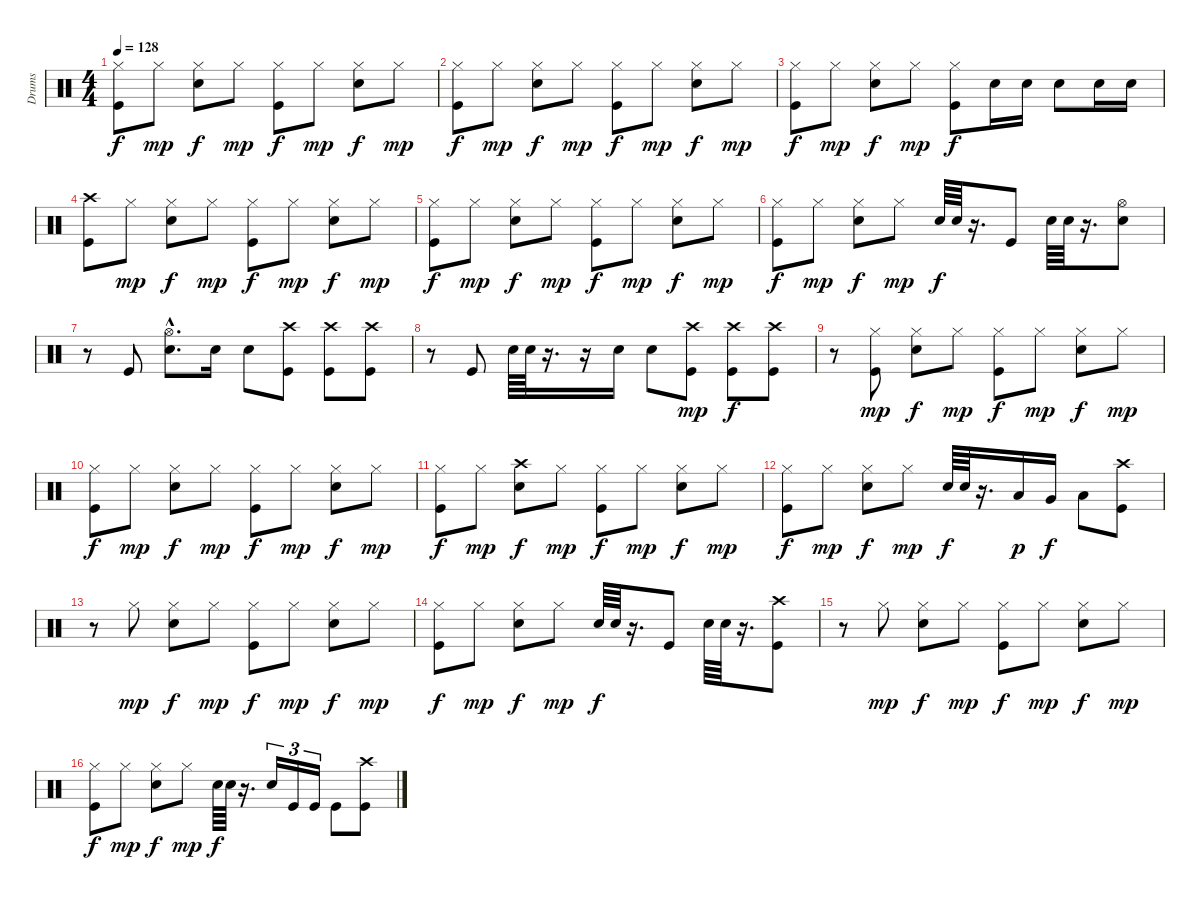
\track ("Drums" "Drums") {instrument percussion}
\staff {score}
\articulation defaults
\ts (4 4)
\tempo 128
\clef neutral
\ks c
("Hi-Hat (closed)" "Kick (hit)").8{dy f} "Hi-Hat (closed)".8{dy mp} ("Hi-Hat (closed)" "Snare (hit) 2").8{dy f} "Hi-Hat (closed)".8{dy mp} ("Hi-Hat (closed)" "Kick (hit)").8{dy f} "Hi-Hat (closed)".8{dy mp} ("Hi-Hat (closed)" "Snare (hit) 2").8{dy f} "Hi-Hat (closed)".8{dy mp} |
("Hi-Hat (closed)" "Kick (hit)").8{dy f} "Hi-Hat (closed)".8{dy mp} ("Hi-Hat (closed)" "Snare (hit) 2").8{dy f} "Hi-Hat (closed)".8{dy mp} ("Hi-Hat (closed)" "Kick (hit)").8{dy f} "Hi-Hat (closed)".8{dy mp} ("Hi-Hat (closed)" "Snare (hit) 2").8{dy f} "Hi-Hat (closed)".8{dy mp} |
("Hi-Hat (closed)" "Kick (hit)").8{dy f} "Hi-Hat (closed)".8{dy mp} ("Hi-Hat (closed)" "Snare (hit) 2").8{dy f} "Hi-Hat (closed)".8{dy mp} ("Hi-Hat (closed)" "Kick (hit)").8{dy f} "Snare (hit) 2".16 "Snare (hit) 2".16 "Snare (hit) 2".8 "Snare (hit) 2".16 "Snare (hit) 2".16 |
("Crash high (hit)" "Kick (hit)").8 "Hi-Hat (closed)".8{dy mp} ("Hi-Hat (closed)" "Snare (hit) 2").8{dy f} "Hi-Hat (closed)".8{dy mp} ("Hi-Hat (closed)" "Kick (hit)").8{dy f} "Hi-Hat (closed)".8{dy mp} ("Hi-Hat (closed)" "Snare (hit) 2").8{dy f} "Hi-Hat (closed)".8{dy mp} |
("Hi-Hat (closed)" "Kick (hit)").8{dy f} "Hi-Hat (closed)".8{dy mp} ("Hi-Hat (closed)" "Snare (hit) 2").8{dy f} "Hi-Hat (closed)".8{dy mp} ("Hi-Hat (closed)" "Kick (hit)").8{dy f} "Hi-Hat (closed)".8{dy mp} ("Hi-Hat (closed)" "Snare (hit) 2").8{dy f} "Hi-Hat (closed)".8{dy mp} |
("Hi-Hat (closed)" "Kick (hit)").8{dy f} "Hi-Hat (closed)".8{dy mp} ("Hi-Hat (closed)" "Snare (hit) 2").8{dy f} "Hi-Hat (closed)".8{dy mp} "Snare (hit) 2".64{dy f} "Snare (hit) 2".64 r.16{d} "Kick (hit)".8 "Snare (hit) 2".64 "Snare (hit) 2".64 r.16{d} ("Hi-Hat (open)" "Snare (hit) 2").8 |
r.8 "Kick (hit)".8 ("Hi-Hat (open)"{hac} "Snare (hit) 2"{hac}).8{d} "Snare (hit) 2".16 "Snare (hit) 2".8 ("Crash high (hit)" "Kick (hit)").8 ("Crash high (hit)" "Kick (hit)").8 ("Crash high (hit)" "Kick (hit)").8 |
r.8 "Kick (hit)".8 "Snare (hit) 2".64 "Snare (hit) 2".64 r.16{d} r.16 "Snare (hit) 2".16 "Snare (hit) 2".8 ("Crash high (hit)" "Kick (hit)").8{dy mp} ("Crash high (hit)" "Kick (hit)").8{dy f} ("Crash high (hit)" "Kick (hit)").8 |
r.8 ("Hi-Hat (closed)" "Kick (hit)").8{dy mp} ("Hi-Hat (closed)" "Snare (hit) 2").8{dy f} "Hi-Hat (closed)".8{dy mp} ("Hi-Hat (closed)" "Kick (hit)").8{dy f} "Hi-Hat (closed)".8{dy mp} ("Hi-Hat (closed)" "Snare (hit) 2").8{dy f} "Hi-Hat (closed)".8{dy mp} |
("Hi-Hat (closed)" "Kick (hit)").8{dy f} "Hi-Hat (closed)".8{dy mp} ("Hi-Hat (closed)" "Snare (hit) 2").8{dy f} "Hi-Hat (closed)".8{dy mp} ("Hi-Hat (closed)" "Kick (hit)").8{dy f} "Hi-Hat (closed)".8{dy mp} ("Hi-Hat (closed)" "Snare (hit) 2").8{dy f} "Hi-Hat (closed)".8{dy mp} |
("Hi-Hat (closed)" "Kick (hit)").8{dy f} "Hi-Hat (closed)".8{dy mp} ("Crash high (hit)" "Snare (hit) 2").8{dy f} "Hi-Hat (closed)".8{dy mp} ("Hi-Hat (closed)" "Kick (hit)").8{dy f} "Hi-Hat (closed)".8{dy mp} ("Hi-Hat (closed)" "Snare (hit) 2").8{dy f} "Hi-Hat (closed)".8{dy mp} |
("Hi-Hat (closed)" "Kick (hit)").8{dy f} "Hi-Hat (closed)".8{dy mp} ("Hi-Hat (closed)" "Snare (hit) 2").8{dy f} "Hi-Hat (closed)".8{dy mp} "Snare (hit) 2".64{dy f} "Snare (hit) 2".64 r.16{d} "Low Tom (hit)".16{dy p} "Very Low Tom (hit)".16{dy f} "Low Floor Tom (hit)".8 ("Crash high (hit)" "Kick (hit)").8 |
r.8 "Hi-Hat (closed)".8{dy mp} ("Hi-Hat (closed)" "Snare (hit) 2").8{dy f} "Hi-Hat (closed)".8{dy mp} ("Hi-Hat (closed)" "Kick (hit)").8{dy f} "Hi-Hat (closed)".8{dy mp} ("Hi-Hat (closed)" "Snare (hit) 2").8{dy f} "Hi-Hat (closed)".8{dy mp} |
("Hi-Hat (closed)" "Kick (hit)").8{dy f} "Hi-Hat (closed)".8{dy mp} ("Hi-Hat (closed)" "Snare (hit) 2").8{dy f} "Hi-Hat (closed)".8{dy mp} "Snare (hit) 2".64{dy f} "Snare (hit) 2".64 r.16{d} "Kick (hit)".8 "Snare (hit) 2".64 "Snare (hit) 2".64 r.16{d} ("Crash high (hit)" "Kick (hit)").8 |
r.8 "Hi-Hat (closed)".8{dy mp} ("Hi-Hat (closed)" "Snare (hit) 2").8{dy f} "Hi-Hat (closed)".8{dy mp} ("Hi-Hat (closed)" "Kick (hit)").8{dy f} "Hi-Hat (closed)".8{dy mp} ("Hi-Hat (closed)" "Snare (hit) 2").8{dy f} "Hi-Hat (closed)".8{dy mp} |
("Hi-Hat (closed)" "Kick (hit)").8{dy f} "Hi-Hat (closed)".8{dy mp} ("Hi-Hat (closed)" "Snare (hit) 2").8{dy f} "Hi-Hat (closed)".8{dy mp} "Snare (hit) 2".64{dy f} "Snare (hit) 2".64 r.16{d} "Snare (hit) 2".16{tu (3 2)} "Kick (hit)".16{tu (3 2)} "Kick (hit)".16{tu (3 2)} "Kick (hit)".8 ("Crash high (hit)" "Kick (hit)").8
